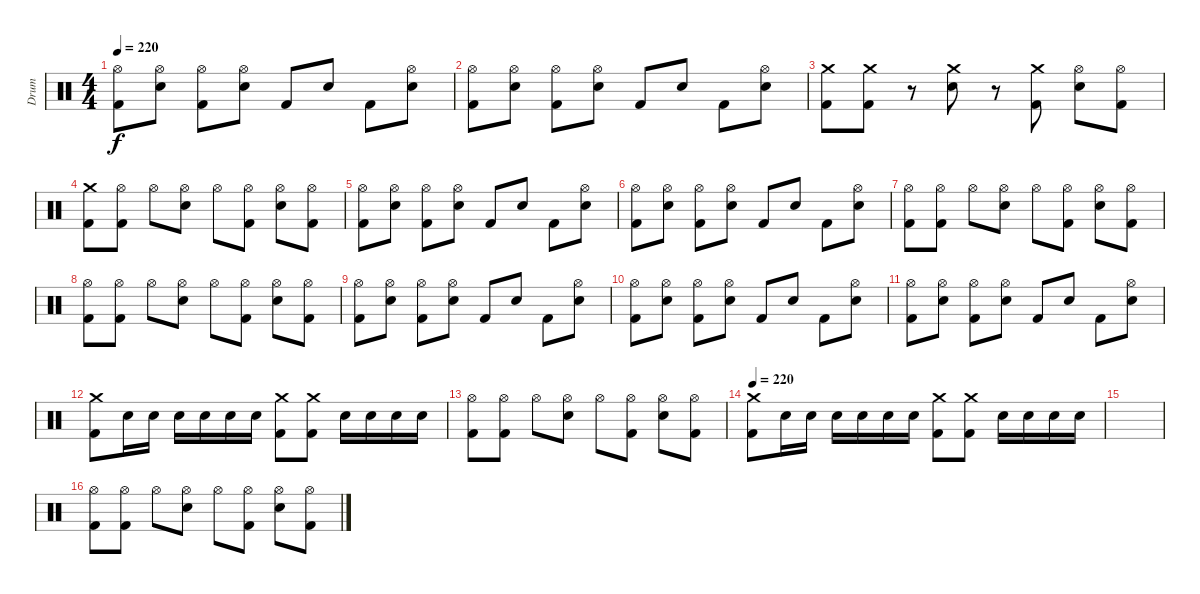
\track ("Drum" "Drum") {instrument percussion}
\staff {score}
\articulation defaults
\ts (4 4)
\tempo 220
\clef neutral
\ks c
("Hi-Hat (open)" "Kick (hit) 2").8{dy f} ("Hi-Hat (open)" "Snare (hit) 2").8 ("Hi-Hat (open)" "Kick (hit) 2").8 ("Hi-Hat (open)" "Snare (hit) 2").8 "Kick (hit) 2".8 "Snare (hit) 2".8 "Kick (hit) 2".8 ("Hi-Hat (open)" "Snare (hit) 2").8 |
("Hi-Hat (open)" "Kick (hit) 2").8 ("Hi-Hat (open)" "Snare (hit) 2").8 ("Hi-Hat (open)" "Kick (hit) 2").8 ("Hi-Hat (open)" "Snare (hit) 2").8 "Kick (hit) 2".8 "Snare (hit) 2".8 "Kick (hit) 2".8 ("Hi-Hat (open)" "Snare (hit) 2").8 |
("Crash medium (hit)" "Kick (hit) 2").8 ("Crash medium (hit)" "Kick (hit) 2").8 r.8 ("Crash medium (hit)" "Snare (hit) 2").8 r.8 ("Crash medium (hit)" "Kick (hit) 2").8 ("Hi-Hat (open)" "Snare (hit) 2").8 ("Hi-Hat (open)" "Kick (hit) 2").8 |
("Crash medium (hit)" "Kick (hit) 2").8 ("Hi-Hat (open)" "Kick (hit) 2").8 "Hi-Hat (open)".8 ("Hi-Hat (open)" "Snare (hit) 2").8 "Hi-Hat (open)".8 ("Hi-Hat (open)" "Kick (hit) 2").8 ("Hi-Hat (open)" "Snare (hit) 2").8 ("Hi-Hat (open)" "Kick (hit) 2").8 |
("Hi-Hat (open)" "Kick (hit) 2").8 ("Hi-Hat (open)" "Snare (hit) 2").8 ("Hi-Hat (open)" "Kick (hit) 2").8 ("Hi-Hat (open)" "Snare (hit) 2").8 "Kick (hit) 2".8 "Snare (hit) 2".8 "Kick (hit) 2".8 ("Hi-Hat (open)" "Snare (hit) 2").8 |
("Hi-Hat (open)" "Kick (hit) 2").8 ("Hi-Hat (open)" "Snare (hit) 2").8 ("Hi-Hat (open)" "Kick (hit) 2").8 ("Hi-Hat (open)" "Snare (hit) 2").8 "Kick (hit) 2".8 "Snare (hit) 2".8 "Kick (hit) 2".8 ("Hi-Hat (open)" "Snare (hit) 2").8 |
("Hi-Hat (open)" "Kick (hit) 2").8 ("Hi-Hat (open)" "Kick (hit) 2").8 "Hi-Hat (open)".8 ("Hi-Hat (open)" "Snare (hit) 2").8 "Hi-Hat (open)".8 ("Hi-Hat (open)" "Kick (hit) 2").8 ("Hi-Hat (open)" "Snare (hit) 2").8 ("Hi-Hat (open)" "Kick (hit) 2").8 |
("Hi-Hat (open)" "Kick (hit) 2").8 ("Hi-Hat (open)" "Kick (hit) 2").8 "Hi-Hat (open)".8 ("Hi-Hat (open)" "Snare (hit) 2").8 "Hi-Hat (open)".8 ("Hi-Hat (open)" "Kick (hit) 2").8 ("Hi-Hat (open)" "Snare (hit) 2").8 ("Hi-Hat (open)" "Kick (hit) 2").8 |
("Hi-Hat (open)" "Kick (hit) 2").8 ("Hi-Hat (open)" "Snare (hit) 2").8 ("Hi-Hat (open)" "Kick (hit) 2").8 ("Hi-Hat (open)" "Snare (hit) 2").8 "Kick (hit) 2".8 "Snare (hit) 2".8 "Kick (hit) 2".8 ("Hi-Hat (open)" "Snare (hit) 2").8 |
("Hi-Hat (open)" "Kick (hit) 2").8 ("Hi-Hat (open)" "Snare (hit) 2").8 ("Hi-Hat (open)" "Kick (hit) 2").8 ("Hi-Hat (open)" "Snare (hit) 2").8 "Kick (hit) 2".8 "Snare (hit) 2".8 "Kick (hit) 2".8 ("Hi-Hat (open)" "Snare (hit) 2").8 |
("Hi-Hat (open)" "Kick (hit) 2").8 ("Hi-Hat (open)" "Snare (hit) 2").8 ("Hi-Hat (open)" "Kick (hit) 2").8 ("Hi-Hat (open)" "Snare (hit) 2").8 "Kick (hit) 2".8 "Snare (hit) 2".8 "Kick (hit) 2".8 ("Hi-Hat (open)" "Snare (hit) 2").8 |
("Crash medium (hit)" "Kick (hit) 2").8 "Snare (hit) 2".16 "Snare (hit) 2".16 "Snare (hit) 2".16 "Snare (hit) 2".16 "Snare (hit) 2".16 "Snare (hit) 2".16 ("Crash medium (hit)" "Kick (hit) 2").8 ("Crash medium (hit)" "Kick (hit) 2").8 "Snare (hit) 2".16 "Snare (hit) 2".16 "Snare (hit) 2".16 "Snare (hit) 2".16 |
("Hi-Hat (open)" "Kick (hit) 2").8 ("Hi-Hat (open)" "Kick (hit) 2").8 "Hi-Hat (open)".8 ("Hi-Hat (open)" "Snare (hit) 2").8 "Hi-Hat (open)".8 ("Hi-Hat (open)" "Kick (hit) 2").8 ("Hi-Hat (open)" "Snare (hit) 2").8 ("Hi-Hat (open)" "Kick (hit) 2").8 |
\tempo 220
("Crash medium (hit)" "Kick (hit) 2").8 "Snare (hit) 2".16 "Snare (hit) 2".16 "Snare (hit) 2".16 "Snare (hit) 2".16 "Snare (hit) 2".16 "Snare (hit) 2".16 ("Crash medium (hit)" "Kick (hit) 2").8 ("Crash medium (hit)" "Kick (hit) 2").8 "Snare (hit) 2".16 "Snare (hit) 2".16 "Snare (hit) 2".16 "Snare (hit) 2".16 |
|
("Hi-Hat (open)" "Kick (hit) 2").8 ("Hi-Hat (open)" "Kick (hit) 2").8 "Hi-Hat (open)".8 ("Hi-Hat (open)" "Snare (hit) 2").8 "Hi-Hat (open)".8 ("Hi-Hat (open)" "Kick (hit) 2").8 ("Hi-Hat (open)" "Snare (hit) 2").8 ("Hi-Hat (open)" "Kick (hit) 2").8
